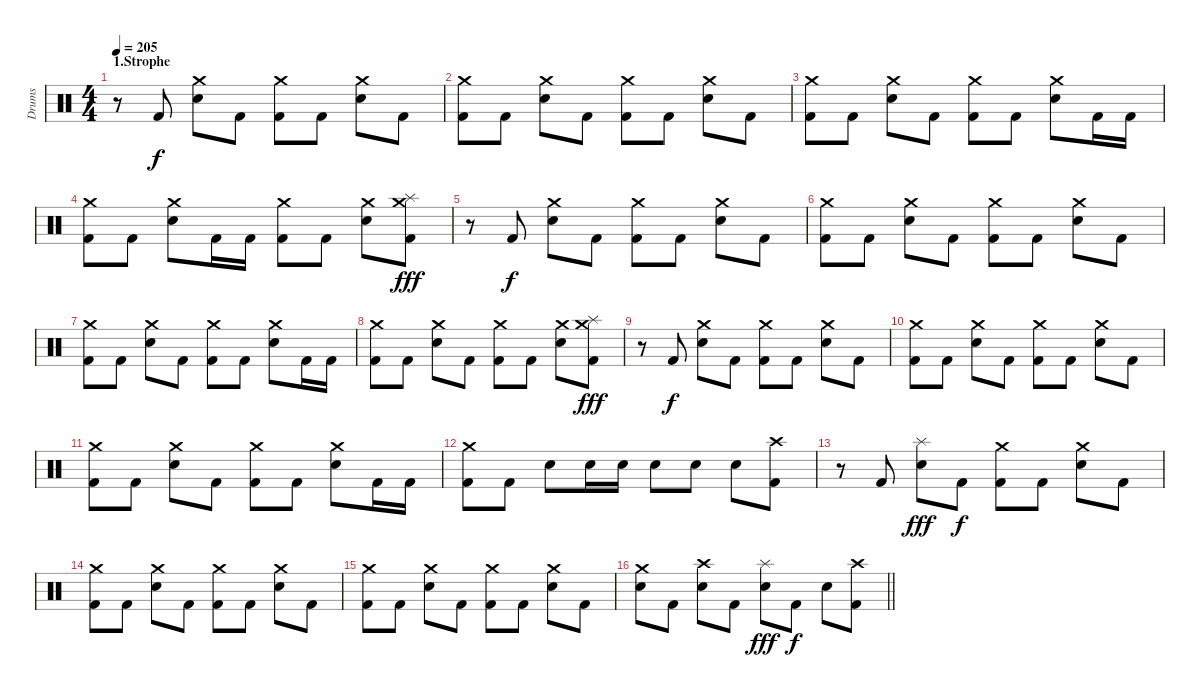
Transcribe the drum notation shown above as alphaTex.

\track ("Drums" "Drums") {instrument percussion}
\staff {score}
\articulation defaults
\ts (4 4)
\section ("" "1.Strophe")
\tempo 205
\clef neutral
\ks c
r.8{dy f} "Kick (hit) 2".8 ("Crash medium (hit)" "Electric Snare (hit)").8 "Kick (hit) 2".8 ("Crash medium (hit)" "Kick (hit) 2").8 "Kick (hit) 2".8 ("Crash medium (hit)" "Electric Snare (hit)").8 "Kick (hit) 2".8 |
("Crash medium (hit)" "Kick (hit) 2").8 "Kick (hit) 2".8 ("Crash medium (hit)" "Electric Snare (hit)").8 "Kick (hit) 2".8 ("Crash medium (hit)" "Kick (hit) 2").8 "Kick (hit) 2".8 ("Crash medium (hit)" "Electric Snare (hit)").8 "Kick (hit) 2".8 |
("Crash medium (hit)" "Kick (hit) 2").8 "Kick (hit) 2".8 ("Crash medium (hit)" "Electric Snare (hit)").8 "Kick (hit) 2".8 ("Crash medium (hit)" "Kick (hit) 2").8 "Kick (hit) 2".8 ("Crash medium (hit)" "Electric Snare (hit)").8 "Kick (hit) 2".16 "Kick (hit) 2".16 |
("Crash medium (hit)" "Kick (hit) 2").8 "Kick (hit) 2".8 ("Crash medium (hit)" "Electric Snare (hit)").8 "Kick (hit) 2".16 "Kick (hit) 2".16 ("Crash medium (hit)" "Kick (hit) 2").8 "Kick (hit) 2".8 ("Crash medium (hit)" "Electric Snare (hit)").8 ("Splash (hit)" "Crash medium (hit)" "Kick (hit) 2").8{dy fff} |
r.8 "Kick (hit) 2".8{dy f} ("Crash medium (hit)" "Electric Snare (hit)").8 "Kick (hit) 2".8 ("Crash medium (hit)" "Kick (hit) 2").8 "Kick (hit) 2".8 ("Crash medium (hit)" "Electric Snare (hit)").8 "Kick (hit) 2".8 |
("Crash medium (hit)" "Kick (hit) 2").8 "Kick (hit) 2".8 ("Crash medium (hit)" "Electric Snare (hit)").8 "Kick (hit) 2".8 ("Crash medium (hit)" "Kick (hit) 2").8 "Kick (hit) 2".8 ("Crash medium (hit)" "Electric Snare (hit)").8 "Kick (hit) 2".8 |
("Crash medium (hit)" "Kick (hit) 2").8 "Kick (hit) 2".8 ("Crash medium (hit)" "Electric Snare (hit)").8 "Kick (hit) 2".8 ("Crash medium (hit)" "Kick (hit) 2").8 "Kick (hit) 2".8 ("Crash medium (hit)" "Electric Snare (hit)").8 "Kick (hit) 2".16 "Kick (hit) 2".16 |
("Crash medium (hit)" "Kick (hit) 2").8 "Kick (hit) 2".8 ("Crash medium (hit)" "Electric Snare (hit)").8 "Kick (hit) 2".8 ("Crash medium (hit)" "Kick (hit) 2").8 "Kick (hit) 2".8 ("Crash medium (hit)" "Electric Snare (hit)").8 ("Splash (hit)" "Crash medium (hit)" "Kick (hit) 2").8{dy fff} |
r.8 "Kick (hit) 2".8{dy f} ("Crash medium (hit)" "Electric Snare (hit)").8 "Kick (hit) 2".8 ("Crash medium (hit)" "Kick (hit) 2").8 "Kick (hit) 2".8 ("Crash medium (hit)" "Electric Snare (hit)").8 "Kick (hit) 2".8 |
("Crash medium (hit)" "Kick (hit) 2").8 "Kick (hit) 2".8 ("Crash medium (hit)" "Electric Snare (hit)").8 "Kick (hit) 2".8 ("Crash medium (hit)" "Kick (hit) 2").8 "Kick (hit) 2".8 ("Crash medium (hit)" "Electric Snare (hit)").8 "Kick (hit) 2".8 |
("Crash medium (hit)" "Kick (hit) 2").8 "Kick (hit) 2".8 ("Crash medium (hit)" "Electric Snare (hit)").8 "Kick (hit) 2".8 ("Crash medium (hit)" "Kick (hit) 2").8 "Kick (hit) 2".8 ("Crash medium (hit)" "Electric Snare (hit)").8 "Kick (hit) 2".16 "Kick (hit) 2".16 |
("Crash medium (hit)" "Kick (hit) 2").8 "Kick (hit) 2".8 "Electric Snare (hit)".8 "Electric Snare (hit)".16 "Electric Snare (hit)".16 "Electric Snare (hit)".8 "Electric Snare (hit)".8 "Electric Snare (hit)".8 ("Crash high (hit)" "Kick (hit) 2").8 |
r.8 "Kick (hit) 2".8 ("Splash (hit)" "Electric Snare (hit)").8{dy fff} "Kick (hit) 2".8{dy f} ("Crash medium (hit)" "Kick (hit) 2").8 "Kick (hit) 2".8 ("Crash medium (hit)" "Electric Snare (hit)").8 "Kick (hit) 2".8 |
("Crash medium (hit)" "Kick (hit) 2").8 "Kick (hit) 2".8 ("Crash medium (hit)" "Electric Snare (hit)").8 "Kick (hit) 2".8 ("Crash medium (hit)" "Kick (hit) 2").8 "Kick (hit) 2".8 ("Crash medium (hit)" "Electric Snare (hit)").8 "Kick (hit) 2".8 |
("Crash medium (hit)" "Kick (hit) 2").8 "Kick (hit) 2".8 ("Crash medium (hit)" "Electric Snare (hit)").8 "Kick (hit) 2".8 ("Crash medium (hit)" "Kick (hit) 2").8 "Kick (hit) 2".8 ("Crash medium (hit)" "Electric Snare (hit)").8 "Kick (hit) 2".8 |
\barLineRight lightlight
("Crash medium (hit)" "Electric Snare (hit)").8 "Kick (hit) 2".8 ("Crash high (hit)" "Electric Snare (hit)").8 "Kick (hit) 2".8 ("Splash (hit)" "Electric Snare (hit)").8{dy fff} "Kick (hit) 2".8{dy f} "Electric Snare (hit)".8 ("Crash high (hit)" "Kick (hit) 2").8
